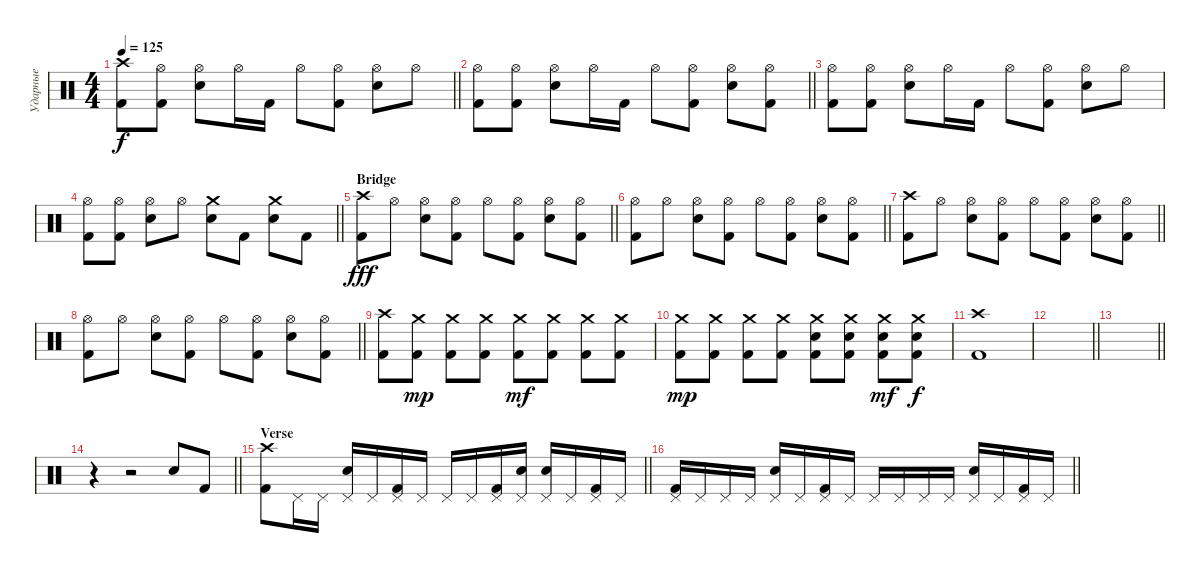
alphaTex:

\track ("Ударные" "Ударные") {instrument percussion}
\staff {score}
\articulation defaults
\ts (4 4)
\tempo 125
\clef neutral
\barLineRight lightlight
\ks c
("Crash high (hit)" "Kick (hit) 2").8{dy f} ("Hi-Hat (open)" "Kick (hit) 2").8 ("Hi-Hat (open)" "Electric Snare (hit)").8 "Hi-Hat (open)".16 "Kick (hit) 2".16 "Hi-Hat (open)".8 ("Hi-Hat (open)" "Kick (hit) 2").8 ("Hi-Hat (open)" "Electric Snare (hit)").8 "Hi-Hat (open)".8 |
\barLineRight lightlight
("Hi-Hat (open)" "Kick (hit) 2").8 ("Hi-Hat (open)" "Kick (hit) 2").8 ("Hi-Hat (open)" "Electric Snare (hit)").8 "Hi-Hat (open)".16 "Kick (hit) 2".16 "Hi-Hat (open)".8 ("Hi-Hat (open)" "Kick (hit) 2").8 ("Hi-Hat (open)" "Electric Snare (hit)").8 ("Hi-Hat (open)" "Kick (hit) 2").8 |
("Hi-Hat (open)" "Kick (hit) 2").8 ("Hi-Hat (open)" "Kick (hit) 2").8 ("Hi-Hat (open)" "Electric Snare (hit)").8 "Hi-Hat (open)".16 "Kick (hit) 2".16 "Hi-Hat (open)".8 ("Hi-Hat (open)" "Kick (hit) 2").8 ("Hi-Hat (open)" "Electric Snare (hit)").8 "Hi-Hat (open)".8 |
\barLineRight lightlight
("Hi-Hat (open)" "Kick (hit) 2").8 ("Hi-Hat (open)" "Kick (hit) 2").8 ("Hi-Hat (open)" "Electric Snare (hit)").8 "Hi-Hat (open)".8 ("Crash medium (hit)" "Electric Snare (hit)").8 "Kick (hit) 2".8 ("Crash medium (hit)" "Electric Snare (hit)").8 "Kick (hit) 2".8 |
\section ("" "Bridge")
\barLineRight lightlight
("Crash high (hit)" "Kick (hit) 2").8{dy fff} "Hi-Hat (open)".8 ("Hi-Hat (open)" "Electric Snare (hit)").8 ("Hi-Hat (open)" "Kick (hit) 2").8 "Hi-Hat (open)".8 ("Hi-Hat (open)" "Kick (hit) 2").8 ("Hi-Hat (open)" "Electric Snare (hit)").8 ("Hi-Hat (open)" "Kick (hit) 2").8 |
\barLineRight lightlight
("Hi-Hat (open)" "Kick (hit) 2").8 "Hi-Hat (open)".8 ("Hi-Hat (open)" "Electric Snare (hit)").8 ("Hi-Hat (open)" "Kick (hit) 2").8 "Hi-Hat (open)".8 ("Hi-Hat (open)" "Kick (hit) 2").8 ("Hi-Hat (open)" "Electric Snare (hit)").8 ("Hi-Hat (open)" "Kick (hit) 2").8 |
\barLineRight lightlight
("Crash high (hit)" "Kick (hit) 2").8 "Hi-Hat (open)".8 ("Hi-Hat (open)" "Electric Snare (hit)").8 ("Hi-Hat (open)" "Kick (hit) 2").8 "Hi-Hat (open)".8 ("Hi-Hat (open)" "Kick (hit) 2").8 ("Hi-Hat (open)" "Electric Snare (hit)").8 ("Hi-Hat (open)" "Kick (hit) 2").8 |
\barLineRight lightlight
("Hi-Hat (open)" "Kick (hit) 2").8 "Hi-Hat (open)".8 ("Hi-Hat (open)" "Electric Snare (hit)").8 ("Hi-Hat (open)" "Kick (hit) 2").8 "Hi-Hat (open)".8 ("Hi-Hat (open)" "Kick (hit) 2").8 ("Hi-Hat (open)" "Electric Snare (hit)").8 ("Hi-Hat (open)" "Kick (hit) 2").8 |
("Crash high (hit)" "Kick (hit) 2").8 ("Crash medium (hit)" "Kick (hit) 2").8{dy mp} ("Crash medium (hit)" "Kick (hit) 2").8 ("Crash medium (hit)" "Kick (hit) 2").8 ("Crash medium (hit)" "Kick (hit) 2").8{dy mf} ("Crash medium (hit)" "Kick (hit) 2").8 ("Crash medium (hit)" "Kick (hit) 2").8 ("Crash medium (hit)" "Kick (hit) 2").8 |
("Crash medium (hit)" "Kick (hit) 2").8{dy mp} ("Crash medium (hit)" "Kick (hit) 2").8 ("Crash medium (hit)" "Kick (hit) 2").8 ("Crash medium (hit)" "Kick (hit) 2").8 ("Crash medium (hit)" "Electric Snare (hit)" "Kick (hit) 2").8 ("Crash medium (hit)" "Electric Snare (hit)" "Kick (hit) 2").8 ("Crash medium (hit)" "Electric Snare (hit)" "Kick (hit) 2").8{dy mf} ("Crash medium (hit)" "Electric Snare (hit)" "Kick (hit) 2").8{dy f} |
("Crash high (hit)" "Kick (hit) 2").1 |
\barLineRight lightlight
|
\barLineRight lightlight
|
\barLineRight lightlight
r.4 r.2 "Electric Snare (hit)".8 "Kick (hit) 2".8 |
\section ("" "Verse")
\barLineRight lightlight
("Crash high (hit)" "Kick (hit) 2").8 "Pedal Hi-Hat (hit)".16 "Pedal Hi-Hat (hit)".16 ("Pedal Hi-Hat (hit)" "Electric Snare (hit)").16 "Pedal Hi-Hat (hit)".16 ("Pedal Hi-Hat (hit)" "Kick (hit) 2").16 "Pedal Hi-Hat (hit)".16 "Pedal Hi-Hat (hit)".16 "Pedal Hi-Hat (hit)".16 ("Pedal Hi-Hat (hit)" "Kick (hit) 2").16 ("Pedal Hi-Hat (hit)" "Electric Snare (hit)").16 ("Pedal Hi-Hat (hit)" "Electric Snare (hit)").16 "Pedal Hi-Hat (hit)".16 ("Pedal Hi-Hat (hit)" "Kick (hit) 2").16 "Pedal Hi-Hat (hit)".16 |
\barLineRight lightlight
("Pedal Hi-Hat (hit)" "Kick (hit) 2").16 "Pedal Hi-Hat (hit)".16 "Pedal Hi-Hat (hit)".16 "Pedal Hi-Hat (hit)".16 ("Pedal Hi-Hat (hit)" "Electric Snare (hit)").16 "Pedal Hi-Hat (hit)".16 ("Pedal Hi-Hat (hit)" "Kick (hit) 2").16 "Pedal Hi-Hat (hit)".16 "Pedal Hi-Hat (hit)".16 "Pedal Hi-Hat (hit)".16 "Pedal Hi-Hat (hit)".16 "Pedal Hi-Hat (hit)".16 ("Pedal Hi-Hat (hit)" "Electric Snare (hit)").16 "Pedal Hi-Hat (hit)".16 ("Pedal Hi-Hat (hit)" "Kick (hit) 2").16 "Pedal Hi-Hat (hit)".16
